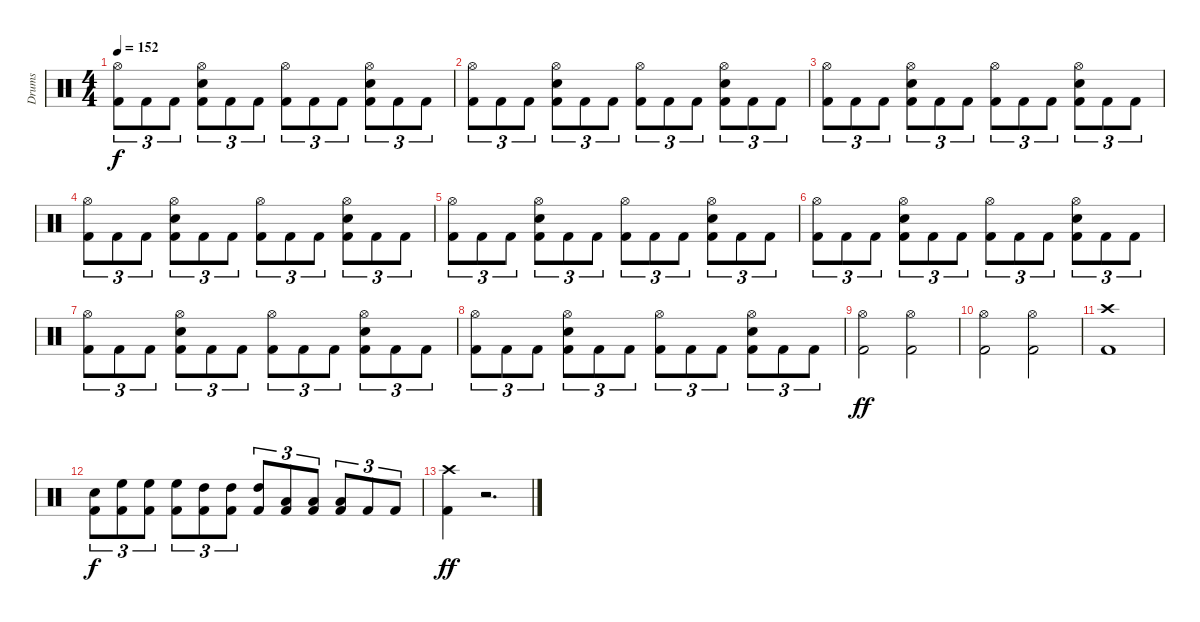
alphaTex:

\track ("Drums" "Drums") {instrument percussion}
\staff {score}
\articulation defaults
\ts (4 4)
\tempo 152
\clef neutral
\ks c
("Hi-Hat (open)" "Kick (hit) 2").8{tu (3 2) dy f} "Kick (hit) 2".8{tu (3 2)} "Kick (hit) 2".8{tu (3 2)} ("Hi-Hat (open)" "Snare (hit) 2" "Kick (hit) 2").8{tu (3 2)} "Kick (hit) 2".8{tu (3 2)} "Kick (hit) 2".8{tu (3 2)} ("Hi-Hat (open)" "Kick (hit) 2").8{tu (3 2)} "Kick (hit) 2".8{tu (3 2)} "Kick (hit) 2".8{tu (3 2)} ("Hi-Hat (open)" "Snare (hit) 2" "Kick (hit) 2").8{tu (3 2)} "Kick (hit) 2".8{tu (3 2)} "Kick (hit) 2".8{tu (3 2)} |
("Hi-Hat (open)" "Kick (hit) 2").8{tu (3 2)} "Kick (hit) 2".8{tu (3 2)} "Kick (hit) 2".8{tu (3 2)} ("Hi-Hat (open)" "Snare (hit) 2" "Kick (hit) 2").8{tu (3 2)} "Kick (hit) 2".8{tu (3 2)} "Kick (hit) 2".8{tu (3 2)} ("Hi-Hat (open)" "Kick (hit) 2").8{tu (3 2)} "Kick (hit) 2".8{tu (3 2)} "Kick (hit) 2".8{tu (3 2)} ("Hi-Hat (open)" "Snare (hit) 2" "Kick (hit) 2").8{tu (3 2)} "Kick (hit) 2".8{tu (3 2)} "Kick (hit) 2".8{tu (3 2)} |
("Hi-Hat (open)" "Kick (hit) 2").8{tu (3 2)} "Kick (hit) 2".8{tu (3 2)} "Kick (hit) 2".8{tu (3 2)} ("Hi-Hat (open)" "Snare (hit) 2" "Kick (hit) 2").8{tu (3 2)} "Kick (hit) 2".8{tu (3 2)} "Kick (hit) 2".8{tu (3 2)} ("Hi-Hat (open)" "Kick (hit) 2").8{tu (3 2)} "Kick (hit) 2".8{tu (3 2)} "Kick (hit) 2".8{tu (3 2)} ("Hi-Hat (open)" "Snare (hit) 2" "Kick (hit) 2").8{tu (3 2)} "Kick (hit) 2".8{tu (3 2)} "Kick (hit) 2".8{tu (3 2)} |
("Hi-Hat (open)" "Kick (hit) 2").8{tu (3 2)} "Kick (hit) 2".8{tu (3 2)} "Kick (hit) 2".8{tu (3 2)} ("Hi-Hat (open)" "Snare (hit) 2" "Kick (hit) 2").8{tu (3 2)} "Kick (hit) 2".8{tu (3 2)} "Kick (hit) 2".8{tu (3 2)} ("Hi-Hat (open)" "Kick (hit) 2").8{tu (3 2)} "Kick (hit) 2".8{tu (3 2)} "Kick (hit) 2".8{tu (3 2)} ("Hi-Hat (open)" "Snare (hit) 2" "Kick (hit) 2").8{tu (3 2)} "Kick (hit) 2".8{tu (3 2)} "Kick (hit) 2".8{tu (3 2)} |
("Hi-Hat (open)" "Kick (hit) 2").8{tu (3 2)} "Kick (hit) 2".8{tu (3 2)} "Kick (hit) 2".8{tu (3 2)} ("Hi-Hat (open)" "Snare (hit) 2" "Kick (hit) 2").8{tu (3 2)} "Kick (hit) 2".8{tu (3 2)} "Kick (hit) 2".8{tu (3 2)} ("Hi-Hat (open)" "Kick (hit) 2").8{tu (3 2)} "Kick (hit) 2".8{tu (3 2)} "Kick (hit) 2".8{tu (3 2)} ("Hi-Hat (open)" "Snare (hit) 2" "Kick (hit) 2").8{tu (3 2)} "Kick (hit) 2".8{tu (3 2)} "Kick (hit) 2".8{tu (3 2)} |
("Hi-Hat (open)" "Kick (hit) 2").8{tu (3 2)} "Kick (hit) 2".8{tu (3 2)} "Kick (hit) 2".8{tu (3 2)} ("Hi-Hat (open)" "Snare (hit) 2" "Kick (hit) 2").8{tu (3 2)} "Kick (hit) 2".8{tu (3 2)} "Kick (hit) 2".8{tu (3 2)} ("Hi-Hat (open)" "Kick (hit) 2").8{tu (3 2)} "Kick (hit) 2".8{tu (3 2)} "Kick (hit) 2".8{tu (3 2)} ("Hi-Hat (open)" "Snare (hit) 2" "Kick (hit) 2").8{tu (3 2)} "Kick (hit) 2".8{tu (3 2)} "Kick (hit) 2".8{tu (3 2)} |
("Hi-Hat (open)" "Kick (hit) 2").8{tu (3 2)} "Kick (hit) 2".8{tu (3 2)} "Kick (hit) 2".8{tu (3 2)} ("Hi-Hat (open)" "Snare (hit) 2" "Kick (hit) 2").8{tu (3 2)} "Kick (hit) 2".8{tu (3 2)} "Kick (hit) 2".8{tu (3 2)} ("Hi-Hat (open)" "Kick (hit) 2").8{tu (3 2)} "Kick (hit) 2".8{tu (3 2)} "Kick (hit) 2".8{tu (3 2)} ("Hi-Hat (open)" "Snare (hit) 2" "Kick (hit) 2").8{tu (3 2)} "Kick (hit) 2".8{tu (3 2)} "Kick (hit) 2".8{tu (3 2)} |
("Hi-Hat (open)" "Kick (hit) 2").8{tu (3 2)} "Kick (hit) 2".8{tu (3 2)} "Kick (hit) 2".8{tu (3 2)} ("Hi-Hat (open)" "Snare (hit) 2" "Kick (hit) 2").8{tu (3 2)} "Kick (hit) 2".8{tu (3 2)} "Kick (hit) 2".8{tu (3 2)} ("Hi-Hat (open)" "Kick (hit) 2").8{tu (3 2)} "Kick (hit) 2".8{tu (3 2)} "Kick (hit) 2".8{tu (3 2)} ("Hi-Hat (open)" "Snare (hit) 2" "Kick (hit) 2").8{tu (3 2)} "Kick (hit) 2".8{tu (3 2)} "Kick (hit) 2".8{tu (3 2)} |
("Hi-Hat (open)" "Kick (hit) 2").2{dy ff} ("Hi-Hat (open)" "Kick (hit) 2").2 |
("Hi-Hat (open)" "Kick (hit) 2").2 ("Hi-Hat (open)" "Kick (hit) 2").2 |
("Crash high (hit)" "Kick (hit) 2").1 |
("Snare (hit) 2" "Kick (hit) 2").8{tu (3 2) dy f} ("High Floor Tom (hit)" "Kick (hit) 2").8{tu (3 2)} ("High Floor Tom (hit)" "Kick (hit) 2").8{tu (3 2)} ("High Floor Tom (hit)" "Kick (hit) 2").8{tu (3 2)} ("High Tom (hit)" "Kick (hit) 2").8{tu (3 2)} ("High Tom (hit)" "Kick (hit) 2").8{tu (3 2)} ("High Tom (hit)" "Kick (hit) 2").8{tu (3 2)} ("Low Tom (hit)" "Kick (hit) 2").8{tu (3 2)} ("Low Tom (hit)" "Kick (hit) 2").8{tu (3 2)} ("Low Tom (hit)" "Kick (hit) 2").8{tu (3 2)} "Kick (hit) 2".8{tu (3 2)} "Kick (hit) 2".8{tu (3 2)} |
("Crash high (hit)" "Kick (hit) 2").4{dy ff} r.2{d}
